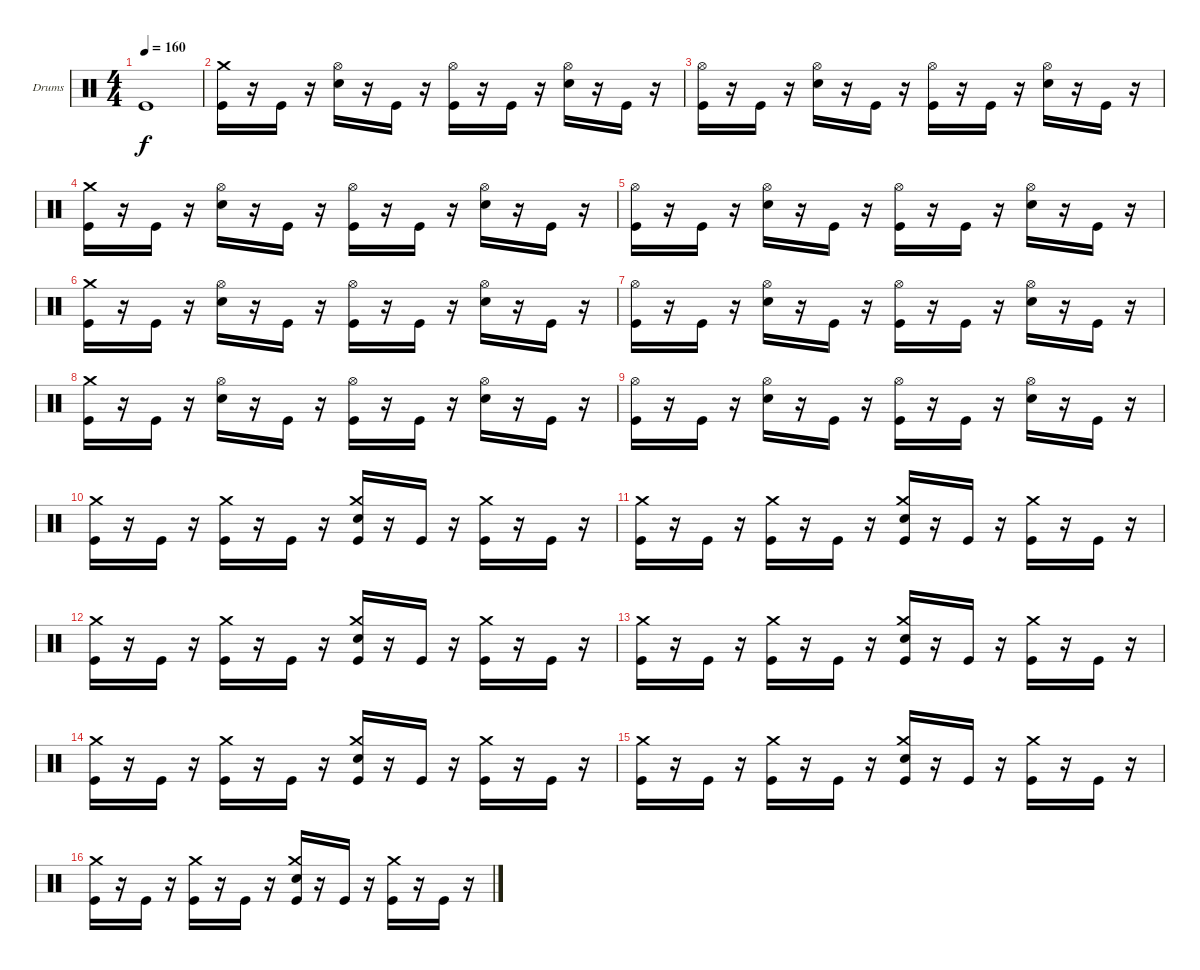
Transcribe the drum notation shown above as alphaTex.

\bracketExtendMode groupsimilarinstruments
\firstSystemTrackNameOrientation horizontal
\otherSystemsTrackNameOrientation horizontal
\track ("Drumkit" "Drums") {instrument percussion}
\staff {score}
\articulation defaults
\ts (4 4)
\tempo 160
\clef neutral
\ks c "Kick (hit)".1{dy f}
|
("Crash medium (hit)" "Kick (hit)").16 r.16 "Kick (hit)".16 r.16 ("Hi-Hat (open)" "Snare (hit) 2").16 r.16 "Kick (hit)".16 r.16 ("Hi-Hat (open)" "Kick (hit)").16 r.16 "Kick (hit)".16 r.16 ("Hi-Hat (open)" "Snare (hit) 2").16 r.16 "Kick (hit)".16 r.16 |
("Hi-Hat (open)" "Kick (hit)").16 r.16 "Kick (hit)".16 r.16 ("Hi-Hat (open)" "Snare (hit) 2").16 r.16 "Kick (hit)".16 r.16 ("Hi-Hat (open)" "Kick (hit)").16 r.16 "Kick (hit)".16 r.16 ("Hi-Hat (open)" "Snare (hit) 2").16 r.16 "Kick (hit)".16 r.16 |
("Crash medium (hit)" "Kick (hit)").16 r.16 "Kick (hit)".16 r.16 ("Hi-Hat (open)" "Snare (hit) 2").16 r.16 "Kick (hit)".16 r.16 ("Hi-Hat (open)" "Kick (hit)").16 r.16 "Kick (hit)".16 r.16 ("Hi-Hat (open)" "Snare (hit) 2").16 r.16 "Kick (hit)".16 r.16 |
("Hi-Hat (open)" "Kick (hit)").16 r.16 "Kick (hit)".16 r.16 ("Hi-Hat (open)" "Snare (hit) 2").16 r.16 "Kick (hit)".16 r.16 ("Hi-Hat (open)" "Kick (hit)").16 r.16 "Kick (hit)".16 r.16 ("Hi-Hat (open)" "Snare (hit) 2").16 r.16 "Kick (hit)".16 r.16 |
("Crash medium (hit)" "Kick (hit)").16 r.16 "Kick (hit)".16 r.16 ("Hi-Hat (open)" "Snare (hit) 2").16 r.16 "Kick (hit)".16 r.16 ("Hi-Hat (open)" "Kick (hit)").16 r.16 "Kick (hit)".16 r.16 ("Hi-Hat (open)" "Snare (hit) 2").16 r.16 "Kick (hit)".16 r.16 |
("Hi-Hat (open)" "Kick (hit)").16 r.16 "Kick (hit)".16 r.16 ("Hi-Hat (open)" "Snare (hit) 2").16 r.16 "Kick (hit)".16 r.16 ("Hi-Hat (open)" "Kick (hit)").16 r.16 "Kick (hit)".16 r.16 ("Hi-Hat (open)" "Snare (hit) 2").16 r.16 "Kick (hit)".16 r.16 |
("Crash medium (hit)" "Kick (hit)").16 r.16 "Kick (hit)".16 r.16 ("Hi-Hat (open)" "Snare (hit) 2").16 r.16 "Kick (hit)".16 r.16 ("Hi-Hat (open)" "Kick (hit)").16 r.16 "Kick (hit)".16 r.16 ("Hi-Hat (open)" "Snare (hit) 2").16 r.16 "Kick (hit)".16 r.16 |
("Hi-Hat (open)" "Kick (hit)").16 r.16 "Kick (hit)".16 r.16 ("Hi-Hat (open)" "Snare (hit) 2").16 r.16 "Kick (hit)".16 r.16 ("Hi-Hat (open)" "Kick (hit)").16 r.16 "Kick (hit)".16 r.16 ("Hi-Hat (open)" "Snare (hit) 2").16 r.16 "Kick (hit)".16 r.16 |
("Crash medium (hit)" "Kick (hit)").16 r.16 "Kick (hit)".16 r.16 ("Crash medium (hit)" "Kick (hit)").16 r.16 "Kick (hit)".16 r.16 ("Crash medium (hit)" "Snare (hit) 2" "Kick (hit)").16 r.16 "Kick (hit)".16 r.16 ("Crash medium (hit)" "Kick (hit)").16 r.16 "Kick (hit)".16 r.16 |
("Crash medium (hit)" "Kick (hit)").16 r.16 "Kick (hit)".16 r.16 ("Crash medium (hit)" "Kick (hit)").16 r.16 "Kick (hit)".16 r.16 ("Crash medium (hit)" "Snare (hit) 2" "Kick (hit)").16 r.16 "Kick (hit)".16 r.16 ("Crash medium (hit)" "Kick (hit)").16 r.16 "Kick (hit)".16 r.16 |
("Crash medium (hit)" "Kick (hit)").16 r.16 "Kick (hit)".16 r.16 ("Crash medium (hit)" "Kick (hit)").16 r.16 "Kick (hit)".16 r.16 ("Crash medium (hit)" "Snare (hit) 2" "Kick (hit)").16 r.16 "Kick (hit)".16 r.16 ("Crash medium (hit)" "Kick (hit)").16 r.16 "Kick (hit)".16 r.16 |
("Crash medium (hit)" "Kick (hit)").16 r.16 "Kick (hit)".16 r.16 ("Crash medium (hit)" "Kick (hit)").16 r.16 "Kick (hit)".16 r.16 ("Crash medium (hit)" "Snare (hit) 2" "Kick (hit)").16 r.16 "Kick (hit)".16 r.16 ("Crash medium (hit)" "Kick (hit)").16 r.16 "Kick (hit)".16 r.16 |
("Crash medium (hit)" "Kick (hit)").16 r.16 "Kick (hit)".16 r.16 ("Crash medium (hit)" "Kick (hit)").16 r.16 "Kick (hit)".16 r.16 ("Crash medium (hit)" "Snare (hit) 2" "Kick (hit)").16 r.16 "Kick (hit)".16 r.16 ("Crash medium (hit)" "Kick (hit)").16 r.16 "Kick (hit)".16 r.16 |
("Crash medium (hit)" "Kick (hit)").16 r.16 "Kick (hit)".16 r.16 ("Crash medium (hit)" "Kick (hit)").16 r.16 "Kick (hit)".16 r.16 ("Crash medium (hit)" "Snare (hit) 2" "Kick (hit)").16 r.16 "Kick (hit)".16 r.16 ("Crash medium (hit)" "Kick (hit)").16 r.16 "Kick (hit)".16 r.16 |
("Crash medium (hit)" "Kick (hit)").16 r.16 "Kick (hit)".16 r.16 ("Crash medium (hit)" "Kick (hit)").16 r.16 "Kick (hit)".16 r.16 ("Crash medium (hit)" "Snare (hit) 2" "Kick (hit)").16 r.16 "Kick (hit)".16 r.16 ("Crash medium (hit)" "Kick (hit)").16 r.16 "Kick (hit)".16 r.16
